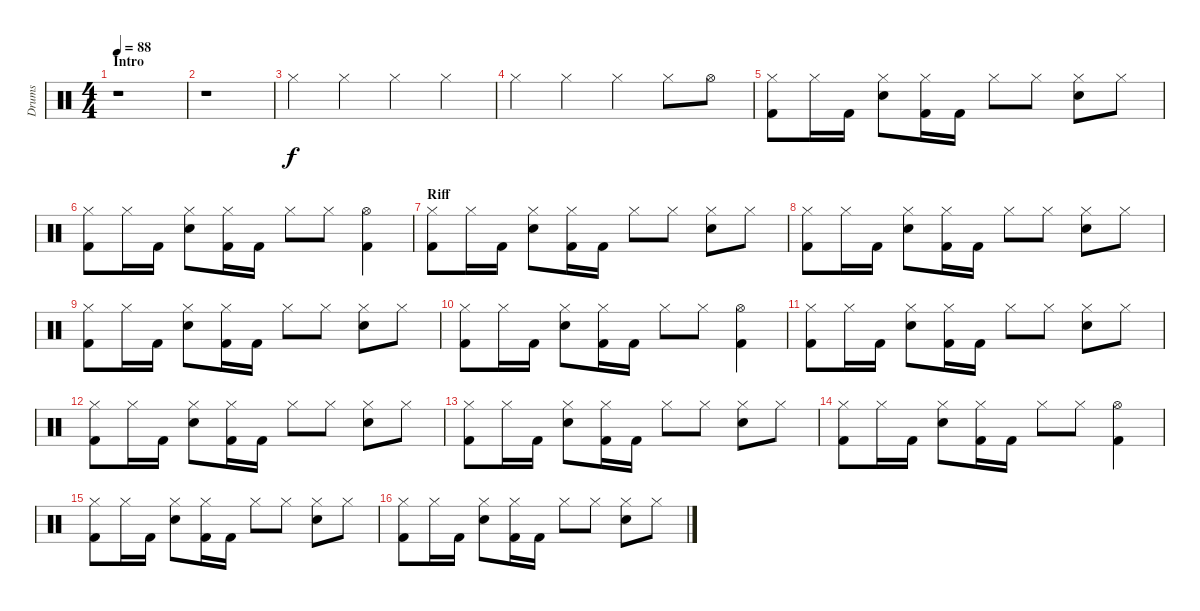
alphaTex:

\track ("Drums" "Drums") {instrument percussion}
\staff {score}
\articulation defaults
\ts (4 4)
\section ("" "Intro")
\tempo 88
\clef neutral
\ks c
r.1{dy f} |
r.1 |
"Hi-Hat (closed)".4 "Hi-Hat (closed)".4 "Hi-Hat (closed)".4 "Hi-Hat (closed)".4 |
"Hi-Hat (closed)".4 "Hi-Hat (closed)".4 "Hi-Hat (closed)".4 "Hi-Hat (closed)".8 "Hi-Hat (open)".8 |
("Hi-Hat (closed)" "Kick (hit) 2").8 "Hi-Hat (closed)".16 "Kick (hit) 2".16 ("Hi-Hat (closed)" "Electric Snare (hit)").8 ("Hi-Hat (closed)" "Kick (hit) 2").16 "Kick (hit) 2".16 "Hi-Hat (closed)".8 "Hi-Hat (closed)".8 ("Hi-Hat (closed)" "Electric Snare (hit)").8 "Hi-Hat (closed)".8 |
("Hi-Hat (closed)" "Kick (hit) 2").8 "Hi-Hat (closed)".16 "Kick (hit) 2".16 ("Hi-Hat (closed)" "Electric Snare (hit)").8 ("Hi-Hat (closed)" "Kick (hit) 2").16 "Kick (hit) 2".16 "Hi-Hat (closed)".8 "Hi-Hat (closed)".8 ("Hi-Hat (open)" "Kick (hit) 2").4 |
\section ("" "Riff")
("Hi-Hat (closed)" "Kick (hit) 2").8 "Hi-Hat (closed)".16 "Kick (hit) 2".16 ("Hi-Hat (closed)" "Electric Snare (hit)").8 ("Hi-Hat (closed)" "Kick (hit) 2").16 "Kick (hit) 2".16 "Hi-Hat (closed)".8 "Hi-Hat (closed)".8 ("Hi-Hat (closed)" "Electric Snare (hit)").8 "Hi-Hat (closed)".8 |
("Hi-Hat (closed)" "Kick (hit) 2").8 "Hi-Hat (closed)".16 "Kick (hit) 2".16 ("Hi-Hat (closed)" "Electric Snare (hit)").8 ("Hi-Hat (closed)" "Kick (hit) 2").16 "Kick (hit) 2".16 "Hi-Hat (closed)".8 "Hi-Hat (closed)".8 ("Hi-Hat (closed)" "Electric Snare (hit)").8 "Hi-Hat (closed)".8 |
("Hi-Hat (closed)" "Kick (hit) 2").8 "Hi-Hat (closed)".16 "Kick (hit) 2".16 ("Hi-Hat (closed)" "Electric Snare (hit)").8 ("Hi-Hat (closed)" "Kick (hit) 2").16 "Kick (hit) 2".16 "Hi-Hat (closed)".8 "Hi-Hat (closed)".8 ("Hi-Hat (closed)" "Electric Snare (hit)").8 "Hi-Hat (closed)".8 |
("Hi-Hat (closed)" "Kick (hit) 2").8 "Hi-Hat (closed)".16 "Kick (hit) 2".16 ("Hi-Hat (closed)" "Electric Snare (hit)").8 ("Hi-Hat (closed)" "Kick (hit) 2").16 "Kick (hit) 2".16 "Hi-Hat (closed)".8 "Hi-Hat (closed)".8 ("Hi-Hat (open)" "Kick (hit) 2").4 |
("Hi-Hat (closed)" "Kick (hit) 2").8 "Hi-Hat (closed)".16 "Kick (hit) 2".16 ("Hi-Hat (closed)" "Electric Snare (hit)").8 ("Hi-Hat (closed)" "Kick (hit) 2").16 "Kick (hit) 2".16 "Hi-Hat (closed)".8 "Hi-Hat (closed)".8 ("Hi-Hat (closed)" "Electric Snare (hit)").8 "Hi-Hat (closed)".8 |
("Hi-Hat (closed)" "Kick (hit) 2").8 "Hi-Hat (closed)".16 "Kick (hit) 2".16 ("Hi-Hat (closed)" "Electric Snare (hit)").8 ("Hi-Hat (closed)" "Kick (hit) 2").16 "Kick (hit) 2".16 "Hi-Hat (closed)".8 "Hi-Hat (closed)".8 ("Hi-Hat (closed)" "Electric Snare (hit)").8 "Hi-Hat (closed)".8 |
("Hi-Hat (closed)" "Kick (hit) 2").8 "Hi-Hat (closed)".16 "Kick (hit) 2".16 ("Hi-Hat (closed)" "Electric Snare (hit)").8 ("Hi-Hat (closed)" "Kick (hit) 2").16 "Kick (hit) 2".16 "Hi-Hat (closed)".8 "Hi-Hat (closed)".8 ("Hi-Hat (closed)" "Electric Snare (hit)").8 "Hi-Hat (closed)".8 |
("Hi-Hat (closed)" "Kick (hit) 2").8 "Hi-Hat (closed)".16 "Kick (hit) 2".16 ("Hi-Hat (closed)" "Electric Snare (hit)").8 ("Hi-Hat (closed)" "Kick (hit) 2").16 "Kick (hit) 2".16 "Hi-Hat (closed)".8 "Hi-Hat (closed)".8 ("Hi-Hat (open)" "Kick (hit) 2").4 |
("Hi-Hat (closed)" "Kick (hit) 2").8 "Hi-Hat (closed)".16 "Kick (hit) 2".16 ("Hi-Hat (closed)" "Electric Snare (hit)").8 ("Hi-Hat (closed)" "Kick (hit) 2").16 "Kick (hit) 2".16 "Hi-Hat (closed)".8 "Hi-Hat (closed)".8 ("Hi-Hat (closed)" "Electric Snare (hit)").8 "Hi-Hat (closed)".8 |
("Hi-Hat (closed)" "Kick (hit) 2").8 "Hi-Hat (closed)".16 "Kick (hit) 2".16 ("Hi-Hat (closed)" "Electric Snare (hit)").8 ("Hi-Hat (closed)" "Kick (hit) 2").16 "Kick (hit) 2".16 "Hi-Hat (closed)".8 "Hi-Hat (closed)".8 ("Hi-Hat (closed)" "Electric Snare (hit)").8 "Hi-Hat (closed)".8
